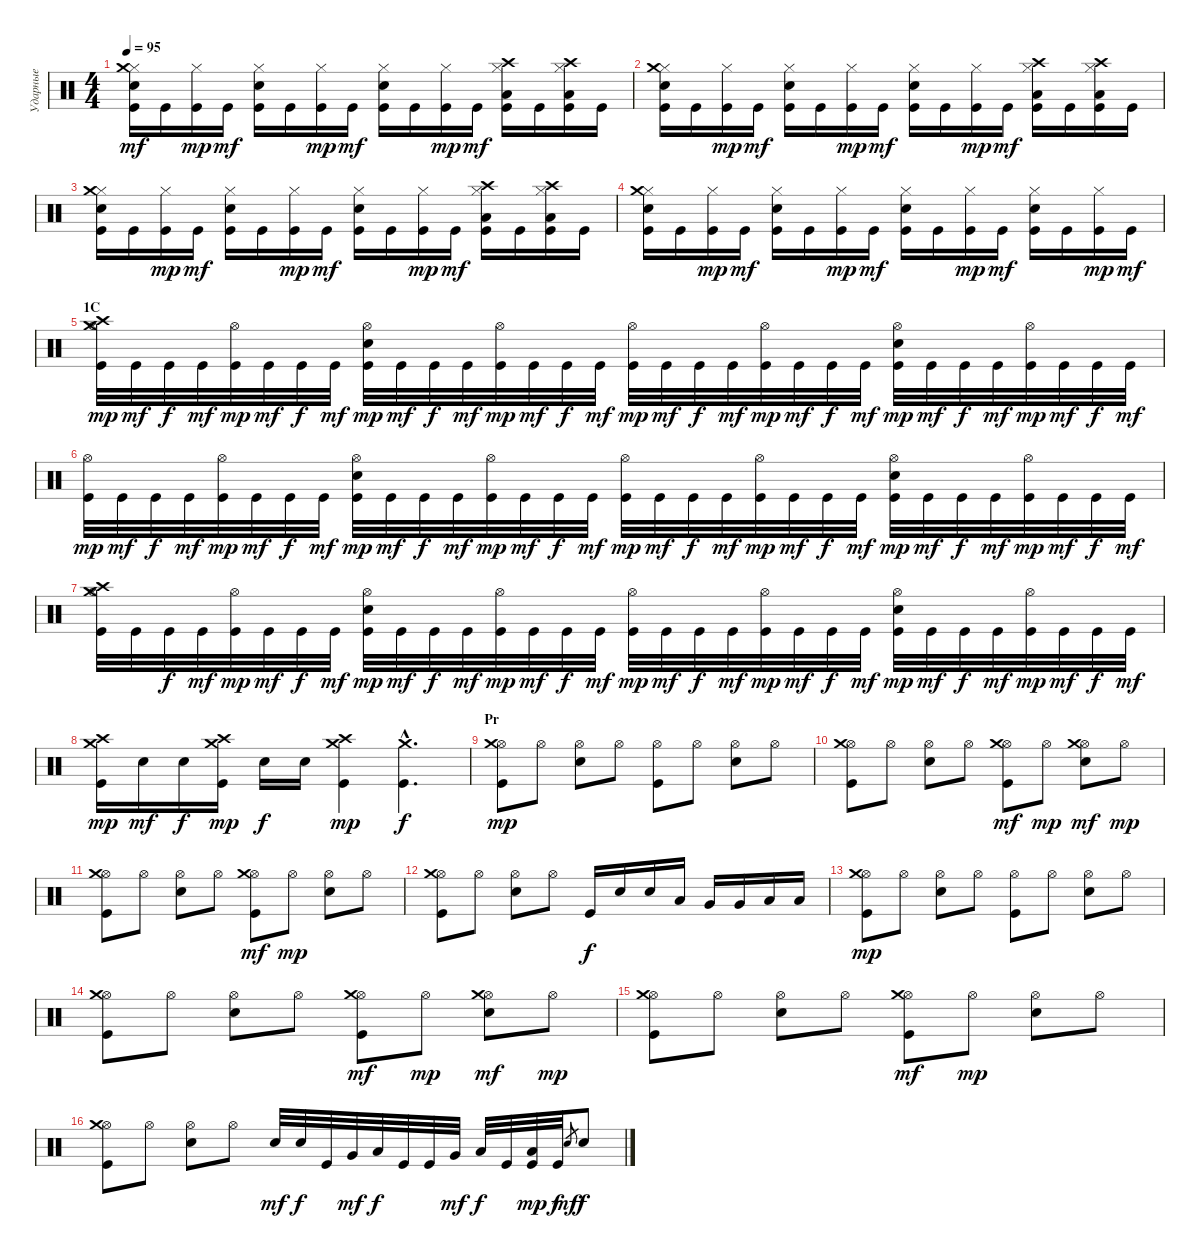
\track ("Ударные" "Ударные") {instrument percussion}
\staff {score}
\articulation defaults
\ts (4 4)
\tempo 95
\clef neutral
\ks c
("Hi-Hat (closed)" "Crash medium (hit)" "Snare (hit) 2" "Kick (hit)").16{dy mf} "Kick (hit)".16 ("Hi-Hat (closed)" "Kick (hit)").16{dy mp} "Kick (hit)".16{dy mf} ("Hi-Hat (closed)" "Snare (hit) 2" "Kick (hit)").16 "Kick (hit)".16 ("Hi-Hat (closed)" "Kick (hit)").16{dy mp} "Kick (hit)".16{dy mf} ("Hi-Hat (closed)" "Snare (hit) 2" "Kick (hit)").16 "Kick (hit)".16 ("Hi-Hat (closed)" "Kick (hit)").16{dy mp} "Kick (hit)".16{dy mf} ("Hi-Hat (closed)" "Crash high (hit)" "Low Floor Tom (hit)" "Kick (hit)").16 "Kick (hit)".16 ("Hi-Hat (closed)" "Crash high (hit)" "Low Floor Tom (hit)" "Kick (hit)").16 "Kick (hit)".16 |
("Hi-Hat (closed)" "Crash medium (hit)" "Snare (hit) 2" "Kick (hit)").16 "Kick (hit)".16 ("Hi-Hat (closed)" "Kick (hit)").16{dy mp} "Kick (hit)".16{dy mf} ("Hi-Hat (closed)" "Snare (hit) 2" "Kick (hit)").16 "Kick (hit)".16 ("Hi-Hat (closed)" "Kick (hit)").16{dy mp} "Kick (hit)".16{dy mf} ("Hi-Hat (closed)" "Snare (hit) 2" "Kick (hit)").16 "Kick (hit)".16 ("Hi-Hat (closed)" "Kick (hit)").16{dy mp} "Kick (hit)".16{dy mf} ("Hi-Hat (closed)" "Crash high (hit)" "Low Floor Tom (hit)" "Kick (hit)").16 "Kick (hit)".16 ("Hi-Hat (closed)" "Crash high (hit)" "Low Floor Tom (hit)" "Kick (hit)").16 "Kick (hit)".16 |
("Hi-Hat (closed)" "Crash medium (hit)" "Snare (hit) 2" "Kick (hit)").16 "Kick (hit)".16 ("Hi-Hat (closed)" "Kick (hit)").16{dy mp} "Kick (hit)".16{dy mf} ("Hi-Hat (closed)" "Snare (hit) 2" "Kick (hit)").16 "Kick (hit)".16 ("Hi-Hat (closed)" "Kick (hit)").16{dy mp} "Kick (hit)".16{dy mf} ("Hi-Hat (closed)" "Snare (hit) 2" "Kick (hit)").16 "Kick (hit)".16 ("Hi-Hat (closed)" "Kick (hit)").16{dy mp} "Kick (hit)".16{dy mf} ("Hi-Hat (closed)" "Crash high (hit)" "Low Floor Tom (hit)" "Kick (hit)").16 "Kick (hit)".16 ("Hi-Hat (closed)" "Crash high (hit)" "Low Floor Tom (hit)" "Kick (hit)").16 "Kick (hit)".16 |
("Hi-Hat (closed)" "Crash medium (hit)" "Snare (hit) 2" "Kick (hit)").16 "Kick (hit)".16 ("Hi-Hat (closed)" "Kick (hit)").16{dy mp} "Kick (hit)".16{dy mf} ("Hi-Hat (closed)" "Snare (hit) 2" "Kick (hit)").16 "Kick (hit)".16 ("Hi-Hat (closed)" "Kick (hit)").16{dy mp} "Kick (hit)".16{dy mf} ("Hi-Hat (closed)" "Snare (hit) 2" "Kick (hit)").16 "Kick (hit)".16 ("Hi-Hat (closed)" "Kick (hit)").16{dy mp} "Kick (hit)".16{dy mf} ("Hi-Hat (closed)" "Snare (hit) 2" "Kick (hit)").16 "Kick (hit)".16 ("Hi-Hat (closed)" "Kick (hit)").16{dy mp} "Kick (hit)".16{dy mf} |
\section ("" "1C")
("Hi-Hat (open)" "Crash medium (hit)" "Crash high (hit)" "Kick (hit)").32{dy mp} "Kick (hit)".32{dy mf} "Kick (hit)".32{dy f} "Kick (hit)".32{dy mf} ("Hi-Hat (open)" "Kick (hit)").32{dy mp} "Kick (hit)".32{dy mf} "Kick (hit)".32{dy f} "Kick (hit)".32{dy mf} ("Hi-Hat (open)" "Snare (hit) 2" "Kick (hit)").32{dy mp} "Kick (hit)".32{dy mf} "Kick (hit)".32{dy f} "Kick (hit)".32{dy mf} ("Hi-Hat (open)" "Kick (hit)").32{dy mp} "Kick (hit)".32{dy mf} "Kick (hit)".32{dy f} "Kick (hit)".32{dy mf} ("Hi-Hat (open)" "Kick (hit)").32{dy mp} "Kick (hit)".32{dy mf} "Kick (hit)".32{dy f} "Kick (hit)".32{dy mf} ("Hi-Hat (open)" "Kick (hit)").32{dy mp} "Kick (hit)".32{dy mf} "Kick (hit)".32{dy f} "Kick (hit)".32{dy mf} ("Hi-Hat (open)" "Snare (hit) 2" "Kick (hit)").32{dy mp} "Kick (hit)".32{dy mf} "Kick (hit)".32{dy f} "Kick (hit)".32{dy mf} ("Hi-Hat (open)" "Kick (hit)").32{dy mp} "Kick (hit)".32{dy mf} "Kick (hit)".32{dy f} "Kick (hit)".32{dy mf} |
("Hi-Hat (open)" "Kick (hit)").32{dy mp} "Kick (hit)".32{dy mf} "Kick (hit)".32{dy f} "Kick (hit)".32{dy mf} ("Hi-Hat (open)" "Kick (hit)").32{dy mp} "Kick (hit)".32{dy mf} "Kick (hit)".32{dy f} "Kick (hit)".32{dy mf} ("Hi-Hat (open)" "Snare (hit) 2" "Kick (hit)").32{dy mp} "Kick (hit)".32{dy mf} "Kick (hit)".32{dy f} "Kick (hit)".32{dy mf} ("Hi-Hat (open)" "Kick (hit)").32{dy mp} "Kick (hit)".32{dy mf} "Kick (hit)".32{dy f} "Kick (hit)".32{dy mf} ("Hi-Hat (open)" "Kick (hit)").32{dy mp} "Kick (hit)".32{dy mf} "Kick (hit)".32{dy f} "Kick (hit)".32{dy mf} ("Hi-Hat (open)" "Kick (hit)").32{dy mp} "Kick (hit)".32{dy mf} "Kick (hit)".32{dy f} "Kick (hit)".32{dy mf} ("Hi-Hat (open)" "Snare (hit) 2" "Kick (hit)").32{dy mp} "Kick (hit)".32{dy mf} "Kick (hit)".32{dy f} "Kick (hit)".32{dy mf} ("Hi-Hat (open)" "Kick (hit)").32{dy mp} "Kick (hit)".32{dy mf} "Kick (hit)".32{dy f} "Kick (hit)".32{dy mf} |
("Hi-Hat (open)" "Crash medium (hit)" "Crash high (hit)" "Kick (hit)").32 "Kick (hit)".32 "Kick (hit)".32{dy f} "Kick (hit)".32{dy mf} ("Hi-Hat (open)" "Kick (hit)").32{dy mp} "Kick (hit)".32{dy mf} "Kick (hit)".32{dy f} "Kick (hit)".32{dy mf} ("Hi-Hat (open)" "Snare (hit) 2" "Kick (hit)").32{dy mp} "Kick (hit)".32{dy mf} "Kick (hit)".32{dy f} "Kick (hit)".32{dy mf} ("Hi-Hat (open)" "Kick (hit)").32{dy mp} "Kick (hit)".32{dy mf} "Kick (hit)".32{dy f} "Kick (hit)".32{dy mf} ("Hi-Hat (open)" "Kick (hit)").32{dy mp} "Kick (hit)".32{dy mf} "Kick (hit)".32{dy f} "Kick (hit)".32{dy mf} ("Hi-Hat (open)" "Kick (hit)").32{dy mp} "Kick (hit)".32{dy mf} "Kick (hit)".32{dy f} "Kick (hit)".32{dy mf} ("Hi-Hat (open)" "Snare (hit) 2" "Kick (hit)").32{dy mp} "Kick (hit)".32{dy mf} "Kick (hit)".32{dy f} "Kick (hit)".32{dy mf} ("Hi-Hat (open)" "Kick (hit)").32{dy mp} "Kick (hit)".32{dy mf} "Kick (hit)".32{dy f} "Kick (hit)".32{dy mf} |
("Crash medium (hit)" "Crash high (hit)" "Kick (hit)").16{dy mp} "Snare (hit) 2".16{dy mf} "Snare (hit) 2".16{dy f} ("Crash medium (hit)" "Crash high (hit)" "Kick (hit)").16{dy mp} "Snare (hit) 2".16{dy f} "Snare (hit) 2".16 ("Crash medium (hit)" "Crash high (hit)" "Kick (hit)").4{dy mp} ("Crash medium (hit)"{hac} "Kick (hit)"{hac}).4{d dy f} |
\section ("" "Pr")
("Hi-Hat (open)" "Crash medium (hit)" "Kick (hit)").8{dy mp} "Hi-Hat (open)".8 ("Hi-Hat (open)" "Snare (hit) 2").8 "Hi-Hat (open)".8 ("Hi-Hat (open)" "Kick (hit)").8 "Hi-Hat (open)".8 ("Hi-Hat (open)" "Snare (hit) 2").8 "Hi-Hat (open)".8 |
("Hi-Hat (open)" "Crash medium (hit)" "Kick (hit)").8 "Hi-Hat (open)".8 ("Hi-Hat (open)" "Snare (hit) 2").8 "Hi-Hat (open)".8 ("Hi-Hat (open)" "Crash medium (hit)" "Kick (hit)").8{dy mf} "Hi-Hat (open)".8{dy mp} ("Hi-Hat (open)" "Crash medium (hit)" "Snare (hit) 2").8{dy mf} "Hi-Hat (open)".8{dy mp} |
("Hi-Hat (open)" "Crash medium (hit)" "Kick (hit)").8 "Hi-Hat (open)".8 ("Hi-Hat (open)" "Snare (hit) 2").8 "Hi-Hat (open)".8 ("Hi-Hat (open)" "Crash medium (hit)" "Kick (hit)").8{dy mf} "Hi-Hat (open)".8{dy mp} ("Hi-Hat (open)" "Snare (hit) 2").8 "Hi-Hat (open)".8 |
("Hi-Hat (open)" "Crash medium (hit)" "Kick (hit)").8 "Hi-Hat (open)".8 ("Hi-Hat (open)" "Snare (hit) 2").8 "Hi-Hat (open)".8 "Kick (hit)".16{dy f} "Snare (hit) 2".16 "Snare (hit) 2".16 "Low Tom (hit)".16 "Very Low Tom (hit)".16 "Very Low Tom (hit)".16 "Low Floor Tom (hit)".16 "Low Floor Tom (hit)".16 |
("Hi-Hat (open)" "Crash medium (hit)" "Kick (hit)").8{dy mp} "Hi-Hat (open)".8 ("Hi-Hat (open)" "Snare (hit) 2").8 "Hi-Hat (open)".8 ("Hi-Hat (open)" "Kick (hit)").8 "Hi-Hat (open)".8 ("Hi-Hat (open)" "Snare (hit) 2").8 "Hi-Hat (open)".8 |
("Hi-Hat (open)" "Crash medium (hit)" "Kick (hit)").8 "Hi-Hat (open)".8 ("Hi-Hat (open)" "Snare (hit) 2").8 "Hi-Hat (open)".8 ("Hi-Hat (open)" "Crash medium (hit)" "Kick (hit)").8{dy mf} "Hi-Hat (open)".8{dy mp} ("Hi-Hat (open)" "Crash medium (hit)" "Snare (hit) 2").8{dy mf} "Hi-Hat (open)".8{dy mp} |
("Hi-Hat (open)" "Crash medium (hit)" "Kick (hit)").8 "Hi-Hat (open)".8 ("Hi-Hat (open)" "Snare (hit) 2").8 "Hi-Hat (open)".8 ("Hi-Hat (open)" "Crash medium (hit)" "Kick (hit)").8{dy mf} "Hi-Hat (open)".8{dy mp} ("Hi-Hat (open)" "Snare (hit) 2").8 "Hi-Hat (open)".8 |
("Hi-Hat (open)" "Crash medium (hit)" "Kick (hit)").8 "Hi-Hat (open)".8 ("Hi-Hat (open)" "Snare (hit) 2").8 "Hi-Hat (open)".8 "Snare (hit) 2".32{dy mf} "Snare (hit) 2".32{dy f} "Kick (hit)".32 "Very Low Tom (hit)".32{dy mf} "Low Floor Tom (hit)".32{dy f} "Kick (hit)".32 "Kick (hit)".32 "Very Low Tom (hit)".32{dy mf} "Low Floor Tom (hit)".32{dy f} "Kick (hit)".32 ("Low Floor Tom (hit)" "Kick (hit)").32{dy mp} "Kick (hit)".32{dy f} "Snare (hit) 2".8{gr dy mf} "Snare (hit) 2".8{dy f}
